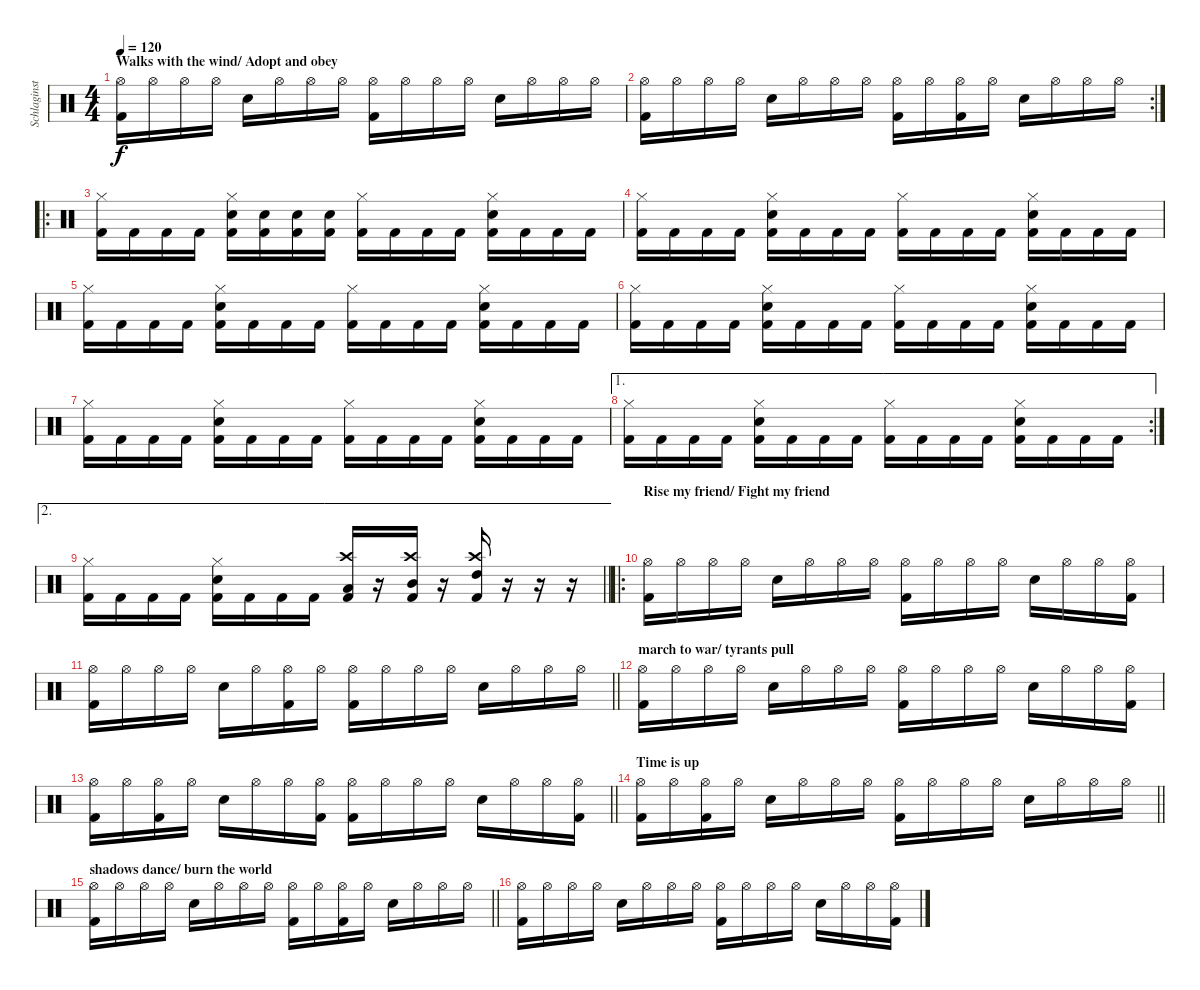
\track ("Schlaginstrumente - Auswahl" "Schlaginst") {instrument percussion}
\staff {score}
\articulation defaults
\ts (4 4)
\section ("" "Walks with the wind/ Adopt and obey")
\tempo 120
\clef neutral
\ks c
("Hi-Hat (open)" "Kick (hit) 2").16{dy f} "Hi-Hat (open)".16 "Hi-Hat (open)".16 "Hi-Hat (open)".16 "Electric Snare (hit)".16 "Hi-Hat (open)".16 "Hi-Hat (open)".16 "Hi-Hat (open)".16 ("Hi-Hat (open)" "Kick (hit) 2").16 "Hi-Hat (open)".16 "Hi-Hat (open)".16 "Hi-Hat (open)".16 "Electric Snare (hit)".16 "Hi-Hat (open)".16 "Hi-Hat (open)".16 "Hi-Hat (open)".16 |
\rc 2
("Hi-Hat (open)" "Kick (hit) 2").16 "Hi-Hat (open)".16 "Hi-Hat (open)".16 "Hi-Hat (open)".16 "Electric Snare (hit)".16 "Hi-Hat (open)".16 "Hi-Hat (open)".16 "Hi-Hat (open)".16 ("Hi-Hat (open)" "Kick (hit) 2").16 "Hi-Hat (open)".16 ("Hi-Hat (open)" "Kick (hit) 2").16 "Hi-Hat (open)".16 "Electric Snare (hit)".16 "Hi-Hat (open)".16 "Hi-Hat (open)".16 "Hi-Hat (open)".16 |
\ro
("Hi-Hat (closed)" "Kick (hit) 2").16 "Kick (hit) 2".16 "Kick (hit) 2".16 "Kick (hit) 2".16 ("Hi-Hat (closed)" "Electric Snare (hit)" "Kick (hit) 2").16 ("Electric Snare (hit)" "Kick (hit) 2").16 ("Electric Snare (hit)" "Kick (hit) 2").16 ("Electric Snare (hit)" "Kick (hit) 2").16 ("Hi-Hat (closed)" "Kick (hit) 2").16 "Kick (hit) 2".16 "Kick (hit) 2".16 "Kick (hit) 2".16 ("Hi-Hat (closed)" "Electric Snare (hit)" "Kick (hit) 2").16 "Kick (hit) 2".16 "Kick (hit) 2".16 "Kick (hit) 2".16 |
("Hi-Hat (closed)" "Kick (hit) 2").16 "Kick (hit) 2".16 "Kick (hit) 2".16 "Kick (hit) 2".16 ("Hi-Hat (closed)" "Electric Snare (hit)" "Kick (hit) 2").16 "Kick (hit) 2".16 "Kick (hit) 2".16 "Kick (hit) 2".16 ("Hi-Hat (closed)" "Kick (hit) 2").16 "Kick (hit) 2".16 "Kick (hit) 2".16 "Kick (hit) 2".16 ("Hi-Hat (closed)" "Electric Snare (hit)" "Kick (hit) 2").16 "Kick (hit) 2".16 "Kick (hit) 2".16 "Kick (hit) 2".16 |
("Hi-Hat (closed)" "Kick (hit) 2").16 "Kick (hit) 2".16 "Kick (hit) 2".16 "Kick (hit) 2".16 ("Hi-Hat (closed)" "Electric Snare (hit)" "Kick (hit) 2").16 "Kick (hit) 2".16 "Kick (hit) 2".16 "Kick (hit) 2".16 ("Hi-Hat (closed)" "Kick (hit) 2").16 "Kick (hit) 2".16 "Kick (hit) 2".16 "Kick (hit) 2".16 ("Hi-Hat (closed)" "Electric Snare (hit)" "Kick (hit) 2").16 "Kick (hit) 2".16 "Kick (hit) 2".16 "Kick (hit) 2".16 |
("Hi-Hat (closed)" "Kick (hit) 2").16 "Kick (hit) 2".16 "Kick (hit) 2".16 "Kick (hit) 2".16 ("Hi-Hat (closed)" "Electric Snare (hit)" "Kick (hit) 2").16 "Kick (hit) 2".16 "Kick (hit) 2".16 "Kick (hit) 2".16 ("Hi-Hat (closed)" "Kick (hit) 2").16 "Kick (hit) 2".16 "Kick (hit) 2".16 "Kick (hit) 2".16 ("Hi-Hat (closed)" "Electric Snare (hit)" "Kick (hit) 2").16 "Kick (hit) 2".16 "Kick (hit) 2".16 "Kick (hit) 2".16 |
("Hi-Hat (closed)" "Kick (hit) 2").16 "Kick (hit) 2".16 "Kick (hit) 2".16 "Kick (hit) 2".16 ("Hi-Hat (closed)" "Electric Snare (hit)" "Kick (hit) 2").16 "Kick (hit) 2".16 "Kick (hit) 2".16 "Kick (hit) 2".16 ("Hi-Hat (closed)" "Kick (hit) 2").16 "Kick (hit) 2".16 "Kick (hit) 2".16 "Kick (hit) 2".16 ("Hi-Hat (closed)" "Electric Snare (hit)" "Kick (hit) 2").16 "Kick (hit) 2".16 "Kick (hit) 2".16 "Kick (hit) 2".16 |
\ae 1
\rc 2
("Hi-Hat (closed)" "Kick (hit) 2").16 "Kick (hit) 2".16 "Kick (hit) 2".16 "Kick (hit) 2".16 ("Hi-Hat (closed)" "Electric Snare (hit)" "Kick (hit) 2").16 "Kick (hit) 2".16 "Kick (hit) 2".16 "Kick (hit) 2".16 ("Hi-Hat (closed)" "Kick (hit) 2").16 "Kick (hit) 2".16 "Kick (hit) 2".16 "Kick (hit) 2".16 ("Hi-Hat (closed)" "Electric Snare (hit)" "Kick (hit) 2").16 "Kick (hit) 2".16 "Kick (hit) 2".16 "Kick (hit) 2".16 |
\ae 2
\barLineRight lightlight
("Hi-Hat (closed)" "Kick (hit) 2").16 "Kick (hit) 2".16 "Kick (hit) 2".16 "Kick (hit) 2".16 ("Hi-Hat (closed)" "Electric Snare (hit)" "Kick (hit) 2").16 "Kick (hit) 2".16 "Kick (hit) 2".16 "Kick (hit) 2".16 ("Crash high (hit)" "Low Tom (hit)" "Kick (hit) 2").16 r.16 ("Crash high (hit)" "Mid Tom (hit)" "Kick (hit) 2").16 r.16 ("Crash high (hit)" "High Tom (hit)" "Kick (hit) 2").16 r.16 r.16 r.16 |
\ro
\section ("" "Rise my friend/ Fight my friend")
("Hi-Hat (open)" "Kick (hit) 2").16 "Hi-Hat (open)".16 "Hi-Hat (open)".16 "Hi-Hat (open)".16 "Electric Snare (hit)".16 "Hi-Hat (open)".16 "Hi-Hat (open)".16 "Hi-Hat (open)".16 ("Hi-Hat (open)" "Kick (hit) 2").16 "Hi-Hat (open)".16 "Hi-Hat (open)".16 "Hi-Hat (open)".16 "Electric Snare (hit)".16 "Hi-Hat (open)".16 "Hi-Hat (open)".16 ("Hi-Hat (open)" "Kick (hit) 2").16 |
\barLineRight lightlight
("Hi-Hat (open)" "Kick (hit) 2").16 "Hi-Hat (open)".16 "Hi-Hat (open)".16 "Hi-Hat (open)".16 "Electric Snare (hit)".16 "Hi-Hat (open)".16 ("Hi-Hat (open)" "Kick (hit) 2").16 "Hi-Hat (open)".16 ("Hi-Hat (open)" "Kick (hit) 2").16 "Hi-Hat (open)".16 "Hi-Hat (open)".16 "Hi-Hat (open)".16 "Electric Snare (hit)".16 "Hi-Hat (open)".16 "Hi-Hat (open)".16 "Hi-Hat (open)".16 |
\section ("" "march to war/ tyrants pull")
("Hi-Hat (open)" "Kick (hit) 2").16 "Hi-Hat (open)".16 "Hi-Hat (open)".16 "Hi-Hat (open)".16 "Electric Snare (hit)".16 "Hi-Hat (open)".16 "Hi-Hat (open)".16 "Hi-Hat (open)".16 ("Hi-Hat (open)" "Kick (hit) 2").16 "Hi-Hat (open)".16 "Hi-Hat (open)".16 "Hi-Hat (open)".16 "Electric Snare (hit)".16 "Hi-Hat (open)".16 "Hi-Hat (open)".16 ("Hi-Hat (open)" "Kick (hit) 2").16 |
\barLineRight lightlight
("Hi-Hat (open)" "Kick (hit) 2").16 "Hi-Hat (open)".16 ("Hi-Hat (open)" "Kick (hit) 2").16 "Hi-Hat (open)".16 "Electric Snare (hit)".16 "Hi-Hat (open)".16 "Hi-Hat (open)".16 ("Hi-Hat (open)" "Kick (hit) 2").16 ("Hi-Hat (open)" "Kick (hit) 2").16 "Hi-Hat (open)".16 "Hi-Hat (open)".16 "Hi-Hat (open)".16 "Electric Snare (hit)".16 "Hi-Hat (open)".16 "Hi-Hat (open)".16 ("Hi-Hat (open)" "Kick (hit) 2").16 |
\section ("" "Time is up")
\barLineRight lightlight
("Hi-Hat (open)" "Kick (hit) 2").16 "Hi-Hat (open)".16 ("Hi-Hat (open)" "Kick (hit) 2").16 "Hi-Hat (open)".16 "Electric Snare (hit)".16 "Hi-Hat (open)".16 "Hi-Hat (open)".16 "Hi-Hat (open)".16 ("Hi-Hat (open)" "Kick (hit) 2").16 "Hi-Hat (open)".16 "Hi-Hat (open)".16 "Hi-Hat (open)".16 "Electric Snare (hit)".16 "Hi-Hat (open)".16 "Hi-Hat (open)".16 "Hi-Hat (open)".16 |
\section ("" "shadows dance/ burn the world")
\barLineRight lightlight
("Hi-Hat (open)" "Kick (hit) 2").16 "Hi-Hat (open)".16 "Hi-Hat (open)".16 "Hi-Hat (open)".16 "Electric Snare (hit)".16 "Hi-Hat (open)".16 "Hi-Hat (open)".16 "Hi-Hat (open)".16 ("Hi-Hat (open)" "Kick (hit) 2").16 "Hi-Hat (open)".16 ("Hi-Hat (open)" "Kick (hit) 2").16 "Hi-Hat (open)".16 "Electric Snare (hit)".16 "Hi-Hat (open)".16 "Hi-Hat (open)".16 "Hi-Hat (open)".16 |
\section ("" "")
("Hi-Hat (open)" "Kick (hit) 2").16 "Hi-Hat (open)".16 "Hi-Hat (open)".16 "Hi-Hat (open)".16 "Electric Snare (hit)".16 "Hi-Hat (open)".16 "Hi-Hat (open)".16 "Hi-Hat (open)".16 ("Hi-Hat (open)" "Kick (hit) 2").16 "Hi-Hat (open)".16 "Hi-Hat (open)".16 "Hi-Hat (open)".16 "Electric Snare (hit)".16 "Hi-Hat (open)".16 "Hi-Hat (open)".16 ("Hi-Hat (open)" "Kick (hit) 2").16
